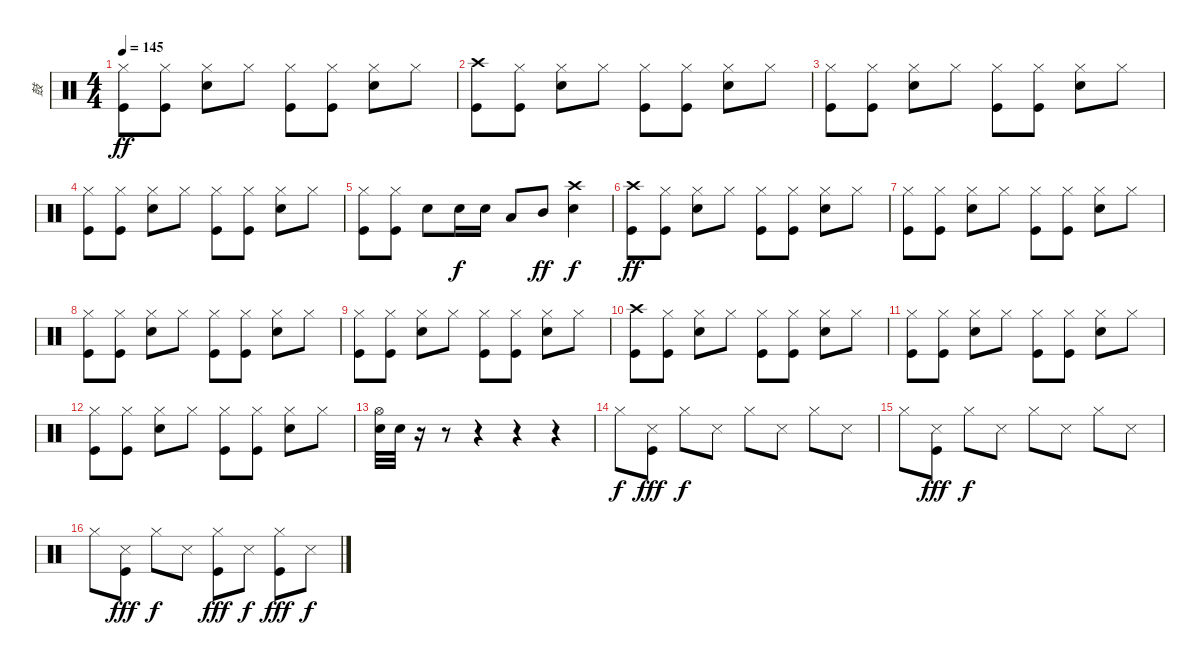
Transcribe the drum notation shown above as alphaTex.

\track ("鼓" "鼓") {instrument percussion}
\staff {score}
\articulation defaults
\ts (4 4)
\tempo 145
\clef neutral
\ks c
("Hi-Hat (closed)" "Kick (hit)").8{dy ff} ("Hi-Hat (closed)" "Kick (hit)").8 ("Hi-Hat (closed)" "Snare (hit) 2").8 "Hi-Hat (closed)".8 ("Hi-Hat (closed)" "Kick (hit)").8 ("Hi-Hat (closed)" "Kick (hit)").8 ("Hi-Hat (closed)" "Snare (hit) 2").8 "Hi-Hat (closed)".8 |
("Crash high (hit)" "Kick (hit)").8 ("Hi-Hat (closed)" "Kick (hit)").8 ("Hi-Hat (closed)" "Snare (hit) 2").8 "Hi-Hat (closed)".8 ("Hi-Hat (closed)" "Kick (hit)").8 ("Hi-Hat (closed)" "Kick (hit)").8 ("Hi-Hat (closed)" "Snare (hit) 2").8 "Hi-Hat (closed)".8 |
("Hi-Hat (closed)" "Kick (hit)").8 ("Hi-Hat (closed)" "Kick (hit)").8 ("Hi-Hat (closed)" "Snare (hit) 2").8 "Hi-Hat (closed)".8 ("Hi-Hat (closed)" "Kick (hit)").8 ("Hi-Hat (closed)" "Kick (hit)").8 ("Hi-Hat (closed)" "Snare (hit) 2").8 "Hi-Hat (closed)".8 |
("Hi-Hat (closed)" "Kick (hit)").8 ("Hi-Hat (closed)" "Kick (hit)").8 ("Hi-Hat (closed)" "Snare (hit) 2").8 "Hi-Hat (closed)".8 ("Hi-Hat (closed)" "Kick (hit)").8 ("Hi-Hat (closed)" "Kick (hit)").8 ("Hi-Hat (closed)" "Snare (hit) 2").8 "Hi-Hat (closed)".8 |
("Hi-Hat (closed)" "Kick (hit)").8 ("Hi-Hat (closed)" "Kick (hit)").8 "Snare (hit) 2".8 "Snare (hit) 2".16{dy f} "Snare (hit) 2".16 "Low Tom (hit)".8 "Mid Tom (hit)".8{dy ff} ("Crash high (hit)" "Snare (hit) 2").4{dy f} |
("Crash high (hit)" "Kick (hit)").8{dy ff} ("Hi-Hat (closed)" "Kick (hit)").8 ("Hi-Hat (closed)" "Snare (hit) 2").8 "Hi-Hat (closed)".8 ("Hi-Hat (closed)" "Kick (hit)").8 ("Hi-Hat (closed)" "Kick (hit)").8 ("Hi-Hat (closed)" "Snare (hit) 2").8 "Hi-Hat (closed)".8 |
("Hi-Hat (closed)" "Kick (hit)").8 ("Hi-Hat (closed)" "Kick (hit)").8 ("Hi-Hat (closed)" "Snare (hit) 2").8 "Hi-Hat (closed)".8 ("Hi-Hat (closed)" "Kick (hit)").8 ("Hi-Hat (closed)" "Kick (hit)").8 ("Hi-Hat (closed)" "Snare (hit) 2").8 "Hi-Hat (closed)".8 |
("Hi-Hat (closed)" "Kick (hit)").8 ("Hi-Hat (closed)" "Kick (hit)").8 ("Hi-Hat (closed)" "Snare (hit) 2").8 "Hi-Hat (closed)".8 ("Hi-Hat (closed)" "Kick (hit)").8 ("Hi-Hat (closed)" "Kick (hit)").8 ("Hi-Hat (closed)" "Snare (hit) 2").8 "Hi-Hat (closed)".8 |
("Hi-Hat (closed)" "Kick (hit)").8 ("Hi-Hat (closed)" "Kick (hit)").8 ("Hi-Hat (closed)" "Snare (hit) 2").8 "Hi-Hat (closed)".8 ("Hi-Hat (closed)" "Kick (hit)").8 ("Hi-Hat (closed)" "Kick (hit)").8 ("Hi-Hat (closed)" "Snare (hit) 2").8 "Hi-Hat (closed)".8 |
("Crash high (hit)" "Kick (hit)").8 ("Hi-Hat (closed)" "Kick (hit)").8 ("Hi-Hat (closed)" "Snare (hit) 2").8 "Hi-Hat (closed)".8 ("Hi-Hat (closed)" "Kick (hit)").8 ("Hi-Hat (closed)" "Kick (hit)").8 ("Hi-Hat (closed)" "Snare (hit) 2").8 "Hi-Hat (closed)".8 |
("Hi-Hat (closed)" "Kick (hit)").8 ("Hi-Hat (closed)" "Kick (hit)").8 ("Hi-Hat (closed)" "Snare (hit) 2").8 "Hi-Hat (closed)".8 ("Hi-Hat (closed)" "Kick (hit)").8 ("Hi-Hat (closed)" "Kick (hit)").8 ("Hi-Hat (closed)" "Snare (hit) 2").8 "Hi-Hat (closed)".8 |
("Hi-Hat (closed)" "Kick (hit)").8 ("Hi-Hat (closed)" "Kick (hit)").8 ("Hi-Hat (closed)" "Snare (hit) 2").8 "Hi-Hat (closed)".8 ("Hi-Hat (closed)" "Kick (hit)").8 ("Hi-Hat (closed)" "Kick (hit)").8 ("Hi-Hat (closed)" "Snare (hit) 2").8 "Hi-Hat (closed)".8 |
("Hi-Hat (open)" "Snare (hit) 2").32 "Snare (hit) 2".32 r.16 r.8 r.4 r.4 r.4 |
"Hi-Hat (closed)".8{dy f} ("Snare (side stick) 3" "Kick (hit)").8{dy fff} "Hi-Hat (closed)".8{dy f} "Snare (side stick) 3".8 "Hi-Hat (closed)".8 "Snare (side stick) 3".8 "Hi-Hat (closed)".8 "Snare (side stick) 3".8 |
"Hi-Hat (closed)".8 ("Snare (side stick) 3" "Kick (hit)").8{dy fff} "Hi-Hat (closed)".8{dy f} "Snare (side stick) 3".8 "Hi-Hat (closed)".8 "Snare (side stick) 3".8 "Hi-Hat (closed)".8 "Snare (side stick) 3".8 |
"Hi-Hat (closed)".8 ("Snare (side stick) 3" "Kick (hit)").8{dy fff} "Hi-Hat (closed)".8{dy f} "Snare (side stick) 3".8 ("Hi-Hat (closed)" "Kick (hit)").8{dy fff} "Snare (side stick) 3".8{dy f} ("Hi-Hat (closed)" "Kick (hit)").8{dy fff} "Snare (side stick) 3".8{dy f}
